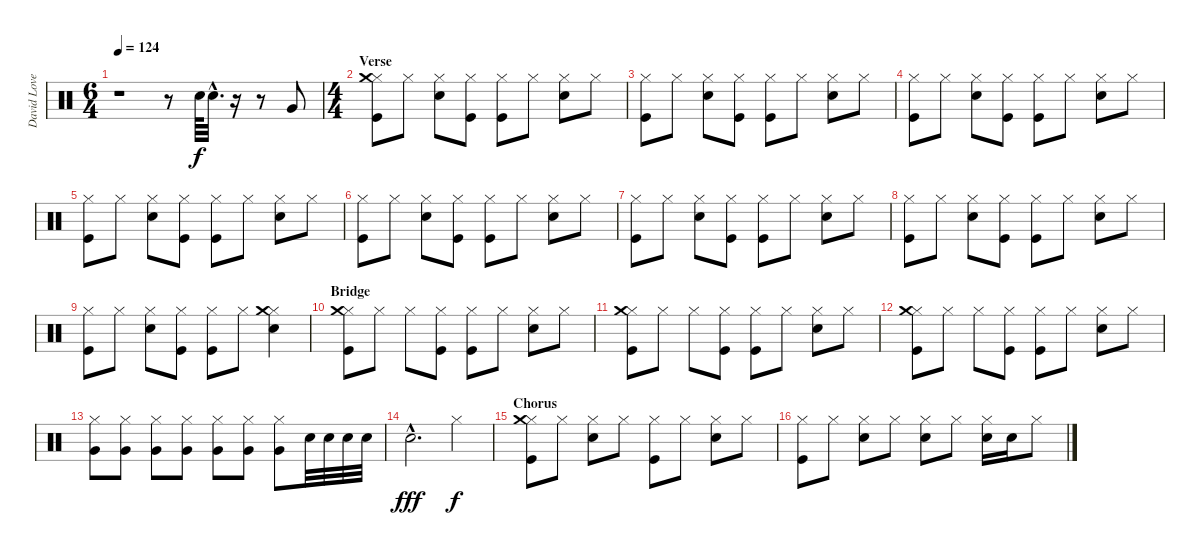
\track ("David Lovering" "David Love") {instrument percussion}
\staff {score}
\articulation defaults
\ts (6 4)
\tempo 124
\clef neutral
\ks c
r.1{dy f} r.8 "Snare (hit) 2".64 "Snare (hit) 2"{hac}.32{d} r.16 r.8 "Very Low Tom (hit)".8 |
\ts (4 4)
\section ("" "Verse")
("Hi-Hat (closed)" "Crash medium (hit)" "Kick (hit)").8 "Hi-Hat (closed)".8 ("Hi-Hat (closed)" "Snare (hit) 2").8 ("Hi-Hat (closed)" "Kick (hit)").8 ("Hi-Hat (closed)" "Kick (hit)").8 "Hi-Hat (closed)".8 ("Hi-Hat (closed)" "Snare (hit) 2").8 "Hi-Hat (closed)".8 |
("Hi-Hat (closed)" "Kick (hit)").8 "Hi-Hat (closed)".8 ("Hi-Hat (closed)" "Snare (hit) 2").8 ("Hi-Hat (closed)" "Kick (hit)").8 ("Hi-Hat (closed)" "Kick (hit)").8 "Hi-Hat (closed)".8 ("Hi-Hat (closed)" "Snare (hit) 2").8 "Hi-Hat (closed)".8 |
("Hi-Hat (closed)" "Kick (hit)").8 "Hi-Hat (closed)".8 ("Hi-Hat (closed)" "Snare (hit) 2").8 ("Hi-Hat (closed)" "Kick (hit)").8 ("Hi-Hat (closed)" "Kick (hit)").8 "Hi-Hat (closed)".8 ("Hi-Hat (closed)" "Snare (hit) 2").8 "Hi-Hat (closed)".8 |
("Hi-Hat (closed)" "Kick (hit)").8 "Hi-Hat (closed)".8 ("Hi-Hat (closed)" "Snare (hit) 2").8 ("Hi-Hat (closed)" "Kick (hit)").8 ("Hi-Hat (closed)" "Kick (hit)").8 "Hi-Hat (closed)".8 ("Hi-Hat (closed)" "Snare (hit) 2").8 "Hi-Hat (closed)".8 |
("Hi-Hat (closed)" "Kick (hit)").8 "Hi-Hat (closed)".8 ("Hi-Hat (closed)" "Snare (hit) 2").8 ("Hi-Hat (closed)" "Kick (hit)").8 ("Hi-Hat (closed)" "Kick (hit)").8 "Hi-Hat (closed)".8 ("Hi-Hat (closed)" "Snare (hit) 2").8 "Hi-Hat (closed)".8 |
("Hi-Hat (closed)" "Kick (hit)").8 "Hi-Hat (closed)".8 ("Hi-Hat (closed)" "Snare (hit) 2").8 ("Hi-Hat (closed)" "Kick (hit)").8 ("Hi-Hat (closed)" "Kick (hit)").8 "Hi-Hat (closed)".8 ("Hi-Hat (closed)" "Snare (hit) 2").8 "Hi-Hat (closed)".8 |
("Hi-Hat (closed)" "Kick (hit)").8 "Hi-Hat (closed)".8 ("Hi-Hat (closed)" "Snare (hit) 2").8 ("Hi-Hat (closed)" "Kick (hit)").8 ("Hi-Hat (closed)" "Kick (hit)").8 "Hi-Hat (closed)".8 ("Hi-Hat (closed)" "Snare (hit) 2").8 "Hi-Hat (closed)".8 |
("Hi-Hat (closed)" "Kick (hit)").8 "Hi-Hat (closed)".8 ("Hi-Hat (closed)" "Snare (hit) 2").8 ("Hi-Hat (closed)" "Kick (hit)").8 ("Hi-Hat (closed)" "Kick (hit)").8 "Hi-Hat (closed)".8 ("Hi-Hat (closed)" "Crash medium (hit)" "Snare (hit) 2").4 |
\section ("" "Bridge")
("Hi-Hat (closed)" "Crash medium (hit)" "Kick (hit)").8 "Hi-Hat (closed)".8 "Hi-Hat (closed)".8 ("Hi-Hat (closed)" "Kick (hit)").8 ("Hi-Hat (closed)" "Kick (hit)").8 "Hi-Hat (closed)".8 ("Hi-Hat (closed)" "Snare (hit) 2").8 "Hi-Hat (closed)".8 |
("Hi-Hat (closed)" "Crash medium (hit)" "Kick (hit)").8 "Hi-Hat (closed)".8 "Hi-Hat (closed)".8 ("Hi-Hat (closed)" "Kick (hit)").8 ("Hi-Hat (closed)" "Kick (hit)").8 "Hi-Hat (closed)".8 ("Hi-Hat (closed)" "Snare (hit) 2").8 "Hi-Hat (closed)".8 |
("Hi-Hat (closed)" "Crash medium (hit)" "Kick (hit)").8 "Hi-Hat (closed)".8 "Hi-Hat (closed)".8 ("Hi-Hat (closed)" "Kick (hit)").8 ("Hi-Hat (closed)" "Kick (hit)").8 "Hi-Hat (closed)".8 ("Hi-Hat (closed)" "Snare (hit) 2").8 "Hi-Hat (closed)".8 |
("Hi-Hat (closed)" "Very Low Tom (hit)").8 ("Hi-Hat (closed)" "Very Low Tom (hit)").8 ("Hi-Hat (closed)" "Very Low Tom (hit)").8 ("Hi-Hat (closed)" "Very Low Tom (hit)").8 ("Hi-Hat (closed)" "Very Low Tom (hit)").8 ("Hi-Hat (closed)" "Very Low Tom (hit)").8 ("Hi-Hat (closed)" "Very Low Tom (hit)").8 "Snare (hit) 2".32 "Snare (hit) 2".32 "Snare (hit) 2".32 "Snare (hit) 2".32 |
"Snare (hit) 2"{hac}.2{d dy fff} "Hi-Hat (closed)".4{dy f} |
\section ("" "Chorus")
("Hi-Hat (closed)" "Crash medium (hit)" "Kick (hit)").8 "Hi-Hat (closed)".8 ("Hi-Hat (closed)" "Snare (hit) 2").8 "Hi-Hat (closed)".8 ("Hi-Hat (closed)" "Kick (hit)").8 "Hi-Hat (closed)".8 ("Hi-Hat (closed)" "Snare (hit) 2").8 "Hi-Hat (closed)".8 |
("Hi-Hat (closed)" "Kick (hit)").8 "Hi-Hat (closed)".8 ("Hi-Hat (closed)" "Snare (hit) 2").8 "Hi-Hat (closed)".8 ("Hi-Hat (closed)" "Snare (hit) 2").8 "Hi-Hat (closed)".8 ("Hi-Hat (closed)" "Snare (hit) 2").16 "Snare (hit) 2".16 "Hi-Hat (closed)".8
